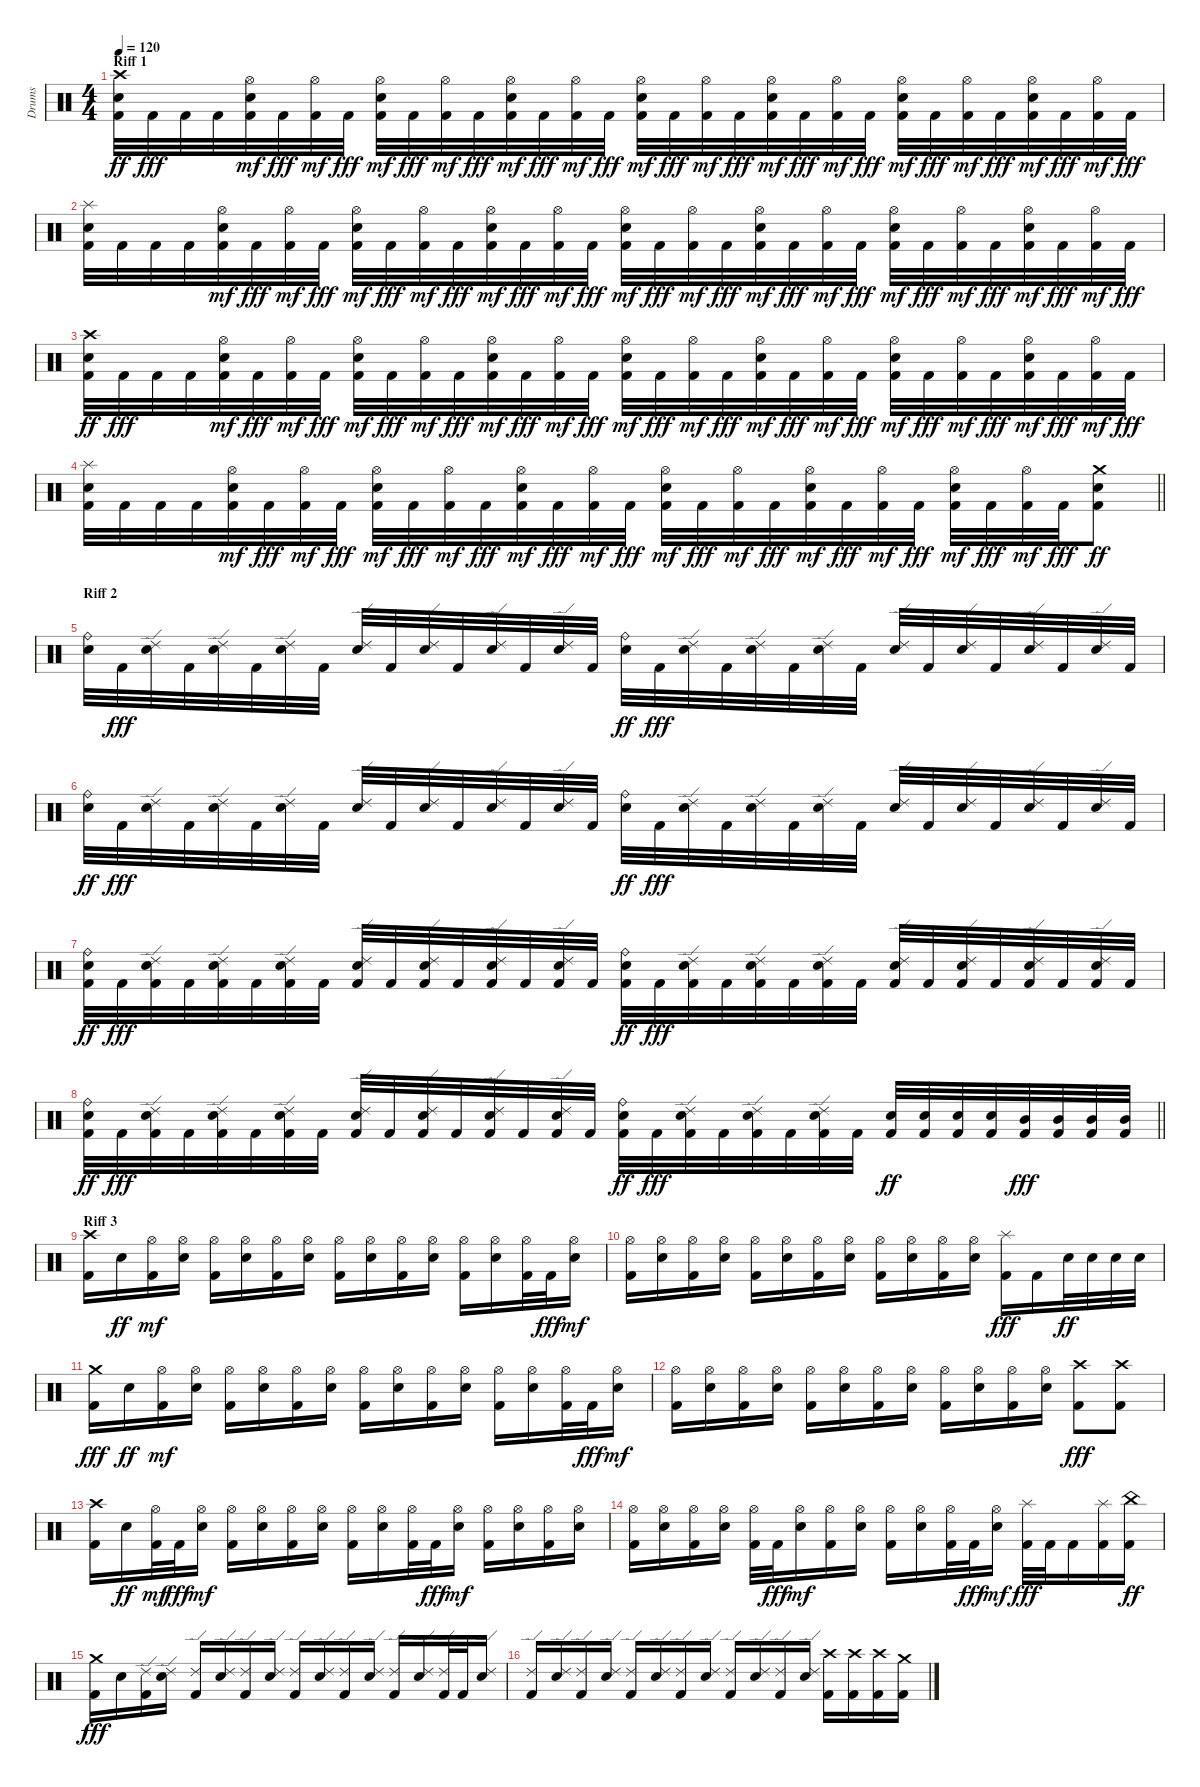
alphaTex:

\track ("Drums" "Drums") {instrument percussion}
\staff {score}
\articulation defaults
\ts (4 4)
\section ("" "Riff 1")
\tempo 120
\clef neutral
\ks c
("Kick (hit) 2" "Snare (hit) 2" "Crash high (hit)").32{dy ff} "Kick (hit) 2".32{dy fff} "Kick (hit) 2".32 "Kick (hit) 2".32 ("Kick (hit) 2" "Snare (hit) 2" "Hi-Hat (open)").32{dy mf} "Kick (hit) 2".32{dy fff} ("Kick (hit) 2" "Hi-Hat (open)").32{dy mf} "Kick (hit) 2".32{dy fff} ("Kick (hit) 2" "Snare (hit) 2" "Hi-Hat (open)").32{dy mf} "Kick (hit) 2".32{dy fff} ("Kick (hit) 2" "Hi-Hat (open)").32{dy mf} "Kick (hit) 2".32{dy fff} ("Kick (hit) 2" "Snare (hit) 2" "Hi-Hat (open)").32{dy mf} "Kick (hit) 2".32{dy fff} ("Kick (hit) 2" "Hi-Hat (open)").32{dy mf} "Kick (hit) 2".32{dy fff} ("Kick (hit) 2" "Snare (hit) 2" "Hi-Hat (open)").32{dy mf} "Kick (hit) 2".32{dy fff} ("Kick (hit) 2" "Hi-Hat (open)").32{dy mf} "Kick (hit) 2".32{dy fff} ("Kick (hit) 2" "Snare (hit) 2" "Hi-Hat (open)").32{dy mf} "Kick (hit) 2".32{dy fff} ("Kick (hit) 2" "Hi-Hat (open)").32{dy mf} "Kick (hit) 2".32{dy fff} ("Kick (hit) 2" "Snare (hit) 2" "Hi-Hat (open)").32{dy mf} "Kick (hit) 2".32{dy fff} ("Kick (hit) 2" "Hi-Hat (open)").32{dy mf} "Kick (hit) 2".32{dy fff} ("Kick (hit) 2" "Snare (hit) 2" "Hi-Hat (open)").32{dy mf} "Kick (hit) 2".32{dy fff} ("Kick (hit) 2" "Hi-Hat (open)").32{dy mf} "Kick (hit) 2".32{dy fff} |
("Kick (hit) 2" "Snare (hit) 2" "Splash (hit)").32 "Kick (hit) 2".32 "Kick (hit) 2".32 "Kick (hit) 2".32 ("Kick (hit) 2" "Snare (hit) 2" "Hi-Hat (open)").32{dy mf} "Kick (hit) 2".32{dy fff} ("Kick (hit) 2" "Hi-Hat (open)").32{dy mf} "Kick (hit) 2".32{dy fff} ("Kick (hit) 2" "Snare (hit) 2" "Hi-Hat (open)").32{dy mf} "Kick (hit) 2".32{dy fff} ("Kick (hit) 2" "Hi-Hat (open)").32{dy mf} "Kick (hit) 2".32{dy fff} ("Kick (hit) 2" "Snare (hit) 2" "Hi-Hat (open)").32{dy mf} "Kick (hit) 2".32{dy fff} ("Kick (hit) 2" "Hi-Hat (open)").32{dy mf} "Kick (hit) 2".32{dy fff} ("Kick (hit) 2" "Snare (hit) 2" "Hi-Hat (open)").32{dy mf} "Kick (hit) 2".32{dy fff} ("Kick (hit) 2" "Hi-Hat (open)").32{dy mf} "Kick (hit) 2".32{dy fff} ("Kick (hit) 2" "Snare (hit) 2" "Hi-Hat (open)").32{dy mf} "Kick (hit) 2".32{dy fff} ("Kick (hit) 2" "Hi-Hat (open)").32{dy mf} "Kick (hit) 2".32{dy fff} ("Kick (hit) 2" "Snare (hit) 2" "Hi-Hat (open)").32{dy mf} "Kick (hit) 2".32{dy fff} ("Kick (hit) 2" "Hi-Hat (open)").32{dy mf} "Kick (hit) 2".32{dy fff} ("Kick (hit) 2" "Snare (hit) 2" "Hi-Hat (open)").32{dy mf} "Kick (hit) 2".32{dy fff} ("Kick (hit) 2" "Hi-Hat (open)").32{dy mf} "Kick (hit) 2".32{dy fff} |
("Kick (hit) 2" "Snare (hit) 2" "Crash high (hit)").32{dy ff} "Kick (hit) 2".32{dy fff} "Kick (hit) 2".32 "Kick (hit) 2".32 ("Kick (hit) 2" "Snare (hit) 2" "Hi-Hat (open)").32{dy mf} "Kick (hit) 2".32{dy fff} ("Kick (hit) 2" "Hi-Hat (open)").32{dy mf} "Kick (hit) 2".32{dy fff} ("Kick (hit) 2" "Snare (hit) 2" "Hi-Hat (open)").32{dy mf} "Kick (hit) 2".32{dy fff} ("Kick (hit) 2" "Hi-Hat (open)").32{dy mf} "Kick (hit) 2".32{dy fff} ("Kick (hit) 2" "Snare (hit) 2" "Hi-Hat (open)").32{dy mf} "Kick (hit) 2".32{dy fff} ("Kick (hit) 2" "Hi-Hat (open)").32{dy mf} "Kick (hit) 2".32{dy fff} ("Kick (hit) 2" "Snare (hit) 2" "Hi-Hat (open)").32{dy mf} "Kick (hit) 2".32{dy fff} ("Kick (hit) 2" "Hi-Hat (open)").32{dy mf} "Kick (hit) 2".32{dy fff} ("Kick (hit) 2" "Snare (hit) 2" "Hi-Hat (open)").32{dy mf} "Kick (hit) 2".32{dy fff} ("Kick (hit) 2" "Hi-Hat (open)").32{dy mf} "Kick (hit) 2".32{dy fff} ("Kick (hit) 2" "Snare (hit) 2" "Hi-Hat (open)").32{dy mf} "Kick (hit) 2".32{dy fff} ("Kick (hit) 2" "Hi-Hat (open)").32{dy mf} "Kick (hit) 2".32{dy fff} ("Kick (hit) 2" "Snare (hit) 2" "Hi-Hat (open)").32{dy mf} "Kick (hit) 2".32{dy fff} ("Kick (hit) 2" "Hi-Hat (open)").32{dy mf} "Kick (hit) 2".32{dy fff} |
\barLineRight lightlight
("Kick (hit) 2" "Snare (hit) 2" "Splash (hit)").32 "Kick (hit) 2".32 "Kick (hit) 2".32 "Kick (hit) 2".32 ("Kick (hit) 2" "Snare (hit) 2" "Hi-Hat (open)").32{dy mf} "Kick (hit) 2".32{dy fff} ("Kick (hit) 2" "Hi-Hat (open)").32{dy mf} "Kick (hit) 2".32{dy fff} ("Kick (hit) 2" "Snare (hit) 2" "Hi-Hat (open)").32{dy mf} "Kick (hit) 2".32{dy fff} ("Kick (hit) 2" "Hi-Hat (open)").32{dy mf} "Kick (hit) 2".32{dy fff} ("Kick (hit) 2" "Snare (hit) 2" "Hi-Hat (open)").32{dy mf} "Kick (hit) 2".32{dy fff} ("Kick (hit) 2" "Hi-Hat (open)").32{dy mf} "Kick (hit) 2".32{dy fff} ("Kick (hit) 2" "Snare (hit) 2" "Hi-Hat (open)").32{dy mf} "Kick (hit) 2".32{dy fff} ("Kick (hit) 2" "Hi-Hat (open)").32{dy mf} "Kick (hit) 2".32{dy fff} ("Kick (hit) 2" "Snare (hit) 2" "Hi-Hat (open)").32{dy mf} "Kick (hit) 2".32{dy fff} ("Kick (hit) 2" "Hi-Hat (open)").32{dy mf} "Kick (hit) 2".32{dy fff} ("Kick (hit) 2" "Snare (hit) 2" "Hi-Hat (open)").32{dy mf} "Kick (hit) 2".32{dy fff} ("Kick (hit) 2" "Hi-Hat (open)").32{dy mf} "Kick (hit) 2".32{dy fff} ("Kick (hit) 2" "Snare (hit) 2" "Crash medium (hit)").8{dy ff} |
\section ("" "Riff 2")
("Snare (hit) 2" "Ride (bell)").32 "Kick (hit) 2".32{dy fff} ("Snare (hit) 2" "Ride (edge) 2").32 "Kick (hit) 2".32 ("Snare (hit) 2" "Ride (edge) 2").32 "Kick (hit) 2".32 ("Snare (hit) 2" "Ride (edge) 2").32 "Kick (hit) 2".32 ("Snare (hit) 2" "Ride (edge) 2").32 "Kick (hit) 2".32 ("Snare (hit) 2" "Ride (edge) 2").32 "Kick (hit) 2".32 ("Snare (hit) 2" "Ride (edge) 2").32 "Kick (hit) 2".32 ("Snare (hit) 2" "Ride (edge) 2").32 "Kick (hit) 2".32 ("Snare (hit) 2" "Ride (bell)").32{dy ff} "Kick (hit) 2".32{dy fff} ("Snare (hit) 2" "Ride (edge) 2").32 "Kick (hit) 2".32 ("Snare (hit) 2" "Ride (edge) 2").32 "Kick (hit) 2".32 ("Snare (hit) 2" "Ride (edge) 2").32 "Kick (hit) 2".32 ("Snare (hit) 2" "Ride (edge) 2").32 "Kick (hit) 2".32 ("Snare (hit) 2" "Ride (edge) 2").32 "Kick (hit) 2".32 ("Snare (hit) 2" "Ride (edge) 2").32 "Kick (hit) 2".32 ("Snare (hit) 2" "Ride (edge) 2").32 "Kick (hit) 2".32 |
("Snare (hit) 2" "Ride (bell)").32{dy ff} "Kick (hit) 2".32{dy fff} ("Snare (hit) 2" "Ride (edge) 2").32 "Kick (hit) 2".32 ("Snare (hit) 2" "Ride (edge) 2").32 "Kick (hit) 2".32 ("Snare (hit) 2" "Ride (edge) 2").32 "Kick (hit) 2".32 ("Snare (hit) 2" "Ride (edge) 2").32 "Kick (hit) 2".32 ("Snare (hit) 2" "Ride (edge) 2").32 "Kick (hit) 2".32 ("Snare (hit) 2" "Ride (edge) 2").32 "Kick (hit) 2".32 ("Snare (hit) 2" "Ride (edge) 2").32 "Kick (hit) 2".32 ("Snare (hit) 2" "Ride (bell)").32{dy ff} "Kick (hit) 2".32{dy fff} ("Snare (hit) 2" "Ride (edge) 2").32 "Kick (hit) 2".32 ("Snare (hit) 2" "Ride (edge) 2").32 "Kick (hit) 2".32 ("Snare (hit) 2" "Ride (edge) 2").32 "Kick (hit) 2".32 ("Snare (hit) 2" "Ride (edge) 2").32 "Kick (hit) 2".32 ("Snare (hit) 2" "Ride (edge) 2").32 "Kick (hit) 2".32 ("Snare (hit) 2" "Ride (edge) 2").32 "Kick (hit) 2".32 ("Snare (hit) 2" "Ride (edge) 2").32 "Kick (hit) 2".32 |
("Kick (hit) 2" "Snare (hit) 2" "Ride (bell)").32{dy ff} "Kick (hit) 2".32{dy fff} ("Kick (hit) 2" "Snare (hit) 2" "Ride (edge) 2").32 "Kick (hit) 2".32 ("Kick (hit) 2" "Snare (hit) 2" "Ride (edge) 2").32 "Kick (hit) 2".32 ("Kick (hit) 2" "Snare (hit) 2" "Ride (edge) 2").32 "Kick (hit) 2".32 ("Kick (hit) 2" "Snare (hit) 2" "Ride (edge) 2").32 "Kick (hit) 2".32 ("Kick (hit) 2" "Snare (hit) 2" "Ride (edge) 2").32 "Kick (hit) 2".32 ("Kick (hit) 2" "Snare (hit) 2" "Ride (edge) 2").32 "Kick (hit) 2".32 ("Kick (hit) 2" "Snare (hit) 2" "Ride (edge) 2").32 "Kick (hit) 2".32 ("Kick (hit) 2" "Snare (hit) 2" "Ride (bell)").32{dy ff} "Kick (hit) 2".32{dy fff} ("Kick (hit) 2" "Snare (hit) 2" "Ride (edge) 2").32 "Kick (hit) 2".32 ("Kick (hit) 2" "Snare (hit) 2" "Ride (edge) 2").32 "Kick (hit) 2".32 ("Kick (hit) 2" "Snare (hit) 2" "Ride (edge) 2").32 "Kick (hit) 2".32 ("Kick (hit) 2" "Snare (hit) 2" "Ride (edge) 2").32 "Kick (hit) 2".32 ("Kick (hit) 2" "Snare (hit) 2" "Ride (edge) 2").32 "Kick (hit) 2".32 ("Kick (hit) 2" "Snare (hit) 2" "Ride (edge) 2").32 "Kick (hit) 2".32 ("Kick (hit) 2" "Snare (hit) 2" "Ride (edge) 2").32 "Kick (hit) 2".32 |
\barLineRight lightlight
("Kick (hit) 2" "Snare (hit) 2" "Ride (bell)").32{dy ff} "Kick (hit) 2".32{dy fff} ("Kick (hit) 2" "Snare (hit) 2" "Ride (edge) 2").32 "Kick (hit) 2".32 ("Kick (hit) 2" "Snare (hit) 2" "Ride (edge) 2").32 "Kick (hit) 2".32 ("Kick (hit) 2" "Snare (hit) 2" "Ride (edge) 2").32 "Kick (hit) 2".32 ("Kick (hit) 2" "Snare (hit) 2" "Ride (edge) 2").32 "Kick (hit) 2".32 ("Kick (hit) 2" "Snare (hit) 2" "Ride (edge) 2").32 "Kick (hit) 2".32 ("Kick (hit) 2" "Snare (hit) 2" "Ride (edge) 2").32 "Kick (hit) 2".32 ("Kick (hit) 2" "Snare (hit) 2" "Ride (edge) 2").32 "Kick (hit) 2".32 ("Kick (hit) 2" "Snare (hit) 2" "Ride (bell)").32{dy ff} "Kick (hit) 2".32{dy fff} ("Kick (hit) 2" "Snare (hit) 2" "Ride (edge) 2").32 "Kick (hit) 2".32 ("Kick (hit) 2" "Snare (hit) 2" "Ride (edge) 2").32 "Kick (hit) 2".32 ("Kick (hit) 2" "Snare (hit) 2" "Ride (edge) 2").32 "Kick (hit) 2".32 ("Kick (hit) 2" "Snare (hit) 2").32{dy ff} ("Kick (hit) 2" "Snare (hit) 2").32 ("Kick (hit) 2" "Snare (hit) 2").32 ("Kick (hit) 2" "Snare (hit) 2").32 ("Kick (hit) 2" "Mid Tom (hit)").32{dy fff} ("Kick (hit) 2" "Mid Tom (hit)").32 ("Kick (hit) 2" "Mid Tom (hit)").32 ("Kick (hit) 2" "Mid Tom (hit)").32 |
\section ("" "Riff 3")
("Kick (hit) 2" "Crash high (hit)").16 "Snare (hit) 2".16{dy ff} ("Kick (hit) 2" "Hi-Hat (open)").16{dy mf} ("Snare (hit) 2" "Hi-Hat (open)").16 ("Kick (hit) 2" "Hi-Hat (open)").16 ("Snare (hit) 2" "Hi-Hat (open)").16 ("Kick (hit) 2" "Hi-Hat (open)").16 ("Snare (hit) 2" "Hi-Hat (open)").16 ("Kick (hit) 2" "Hi-Hat (open)").16 ("Snare (hit) 2" "Hi-Hat (open)").16 ("Kick (hit) 2" "Hi-Hat (open)").16 ("Snare (hit) 2" "Hi-Hat (open)").16 ("Kick (hit) 2" "Hi-Hat (open)").16 ("Snare (hit) 2" "Hi-Hat (open)").16 ("Kick (hit) 2" "Hi-Hat (open)").32 "Kick (hit) 2".32{dy fff} ("Snare (hit) 2" "Hi-Hat (open)").16{dy mf} |
("Kick (hit) 2" "Hi-Hat (open)").16 ("Snare (hit) 2" "Hi-Hat (open)").16 ("Kick (hit) 2" "Hi-Hat (open)").16 ("Snare (hit) 2" "Hi-Hat (open)").16 ("Kick (hit) 2" "Hi-Hat (open)").16 ("Snare (hit) 2" "Hi-Hat (open)").16 ("Kick (hit) 2" "Hi-Hat (open)").16 ("Snare (hit) 2" "Hi-Hat (open)").16 ("Kick (hit) 2" "Hi-Hat (open)").16 ("Snare (hit) 2" "Hi-Hat (open)").16 ("Kick (hit) 2" "Hi-Hat (open)").16 ("Snare (hit) 2" "Hi-Hat (open)").16 ("Kick (hit) 2" "Splash (hit)").16{dy fff} "Kick (hit) 2".16 "Snare (hit) 2".32{dy ff} "Snare (hit) 2".32 "Snare (hit) 2".32 "Snare (hit) 2".32 |
("Kick (hit) 2" "Crash medium (hit)").16{dy fff} "Snare (hit) 2".16{dy ff} ("Kick (hit) 2" "Hi-Hat (open)").16{dy mf} ("Snare (hit) 2" "Hi-Hat (open)").16 ("Kick (hit) 2" "Hi-Hat (open)").16 ("Snare (hit) 2" "Hi-Hat (open)").16 ("Kick (hit) 2" "Hi-Hat (open)").16 ("Snare (hit) 2" "Hi-Hat (open)").16 ("Kick (hit) 2" "Hi-Hat (open)").16 ("Snare (hit) 2" "Hi-Hat (open)").16 ("Kick (hit) 2" "Hi-Hat (open)").16 ("Snare (hit) 2" "Hi-Hat (open)").16 ("Kick (hit) 2" "Hi-Hat (open)").16 ("Snare (hit) 2" "Hi-Hat (open)").16 ("Kick (hit) 2" "Hi-Hat (open)").32 "Kick (hit) 2".32{dy fff} ("Snare (hit) 2" "Hi-Hat (open)").16{dy mf} |
("Kick (hit) 2" "Hi-Hat (open)").16 ("Snare (hit) 2" "Hi-Hat (open)").16 ("Kick (hit) 2" "Hi-Hat (open)").16 ("Snare (hit) 2" "Hi-Hat (open)").16 ("Kick (hit) 2" "Hi-Hat (open)").16 ("Snare (hit) 2" "Hi-Hat (open)").16 ("Kick (hit) 2" "Hi-Hat (open)").16 ("Snare (hit) 2" "Hi-Hat (open)").16 ("Kick (hit) 2" "Hi-Hat (open)").16 ("Snare (hit) 2" "Hi-Hat (open)").16 ("Kick (hit) 2" "Hi-Hat (open)").16 ("Snare (hit) 2" "Hi-Hat (open)").16 ("Kick (hit) 2" "Crash high (hit)").8{dy fff} ("Kick (hit) 2" "Crash high (hit)").8 |
("Kick (hit) 2" "Crash high (hit)").16 "Snare (hit) 2".16{dy ff} ("Kick (hit) 2" "Hi-Hat (open)").32{dy mf} "Kick (hit) 2".32{dy fff} ("Snare (hit) 2" "Hi-Hat (open)").16{dy mf} ("Kick (hit) 2" "Hi-Hat (open)").16 ("Snare (hit) 2" "Hi-Hat (open)").16 ("Kick (hit) 2" "Hi-Hat (open)").16 ("Snare (hit) 2" "Hi-Hat (open)").16 ("Kick (hit) 2" "Hi-Hat (open)").16 ("Snare (hit) 2" "Hi-Hat (open)").16 ("Kick (hit) 2" "Hi-Hat (open)").32 "Kick (hit) 2".32{dy fff} ("Snare (hit) 2" "Hi-Hat (open)").16{dy mf} ("Kick (hit) 2" "Hi-Hat (open)").16 ("Snare (hit) 2" "Hi-Hat (open)").16 ("Kick (hit) 2" "Hi-Hat (open)").16 ("Snare (hit) 2" "Hi-Hat (open)").16 |
("Kick (hit) 2" "Hi-Hat (open)").16 ("Snare (hit) 2" "Hi-Hat (open)").16 ("Kick (hit) 2" "Hi-Hat (open)").16 ("Snare (hit) 2" "Hi-Hat (open)").16 ("Kick (hit) 2" "Hi-Hat (open)").32 "Kick (hit) 2".32{dy fff} ("Snare (hit) 2" "Hi-Hat (open)").16{dy mf} ("Kick (hit) 2" "Hi-Hat (open)").16 ("Snare (hit) 2" "Hi-Hat (open)").16 ("Kick (hit) 2" "Hi-Hat (open)").16 ("Snare (hit) 2" "Hi-Hat (open)").16 ("Kick (hit) 2" "Hi-Hat (open)").32 "Kick (hit) 2".32{dy fff} ("Snare (hit) 2" "Hi-Hat (open)").16{dy mf} ("Kick (hit) 2" "Splash (hit)").32{dy fff} "Kick (hit) 2".32 "Kick (hit) 2".16 ("Kick (hit) 2" "Splash (hit)").16 ("Kick (hit) 2" "China (hit)").16{dy ff} |
("Kick (hit) 2" "Crash medium (hit)").16{dy fff} "Snare (hit) 2".16 ("Kick (hit) 2" "Ride (edge) 2").16 ("Snare (hit) 2" "Ride (edge) 2").16 ("Kick (hit) 2" "Ride (edge) 2").16 ("Snare (hit) 2" "Ride (edge) 2").16 ("Kick (hit) 2" "Ride (edge) 2").16 ("Snare (hit) 2" "Ride (edge) 2").16 ("Kick (hit) 2" "Ride (edge) 2").16 ("Snare (hit) 2" "Ride (edge) 2").16 ("Kick (hit) 2" "Ride (edge) 2").16 ("Snare (hit) 2" "Ride (edge) 2").16 ("Kick (hit) 2" "Ride (edge) 2").16 ("Snare (hit) 2" "Ride (edge) 2").16 ("Kick (hit) 2" "Ride (edge) 2").32 "Kick (hit) 2".32 ("Snare (hit) 2" "Ride (edge) 2").16 |
("Kick (hit) 2" "Ride (edge) 2").16 ("Snare (hit) 2" "Ride (edge) 2").16 ("Kick (hit) 2" "Ride (edge) 2").16 ("Snare (hit) 2" "Ride (edge) 2").16 ("Kick (hit) 2" "Ride (edge) 2").16 ("Snare (hit) 2" "Ride (edge) 2").16 ("Kick (hit) 2" "Ride (edge) 2").16 ("Snare (hit) 2" "Ride (edge) 2").16 ("Kick (hit) 2" "Ride (edge) 2").16 ("Snare (hit) 2" "Ride (edge) 2").16 ("Kick (hit) 2" "Ride (edge) 2").16 ("Snare (hit) 2" "Ride (edge) 2").16 ("Kick (hit) 2" "Crash high (hit)").16 ("Kick (hit) 2" "Crash high (hit)").16 ("Kick (hit) 2" "Crash high (hit)").16 ("Kick (hit) 2" "Crash medium (hit)").16
